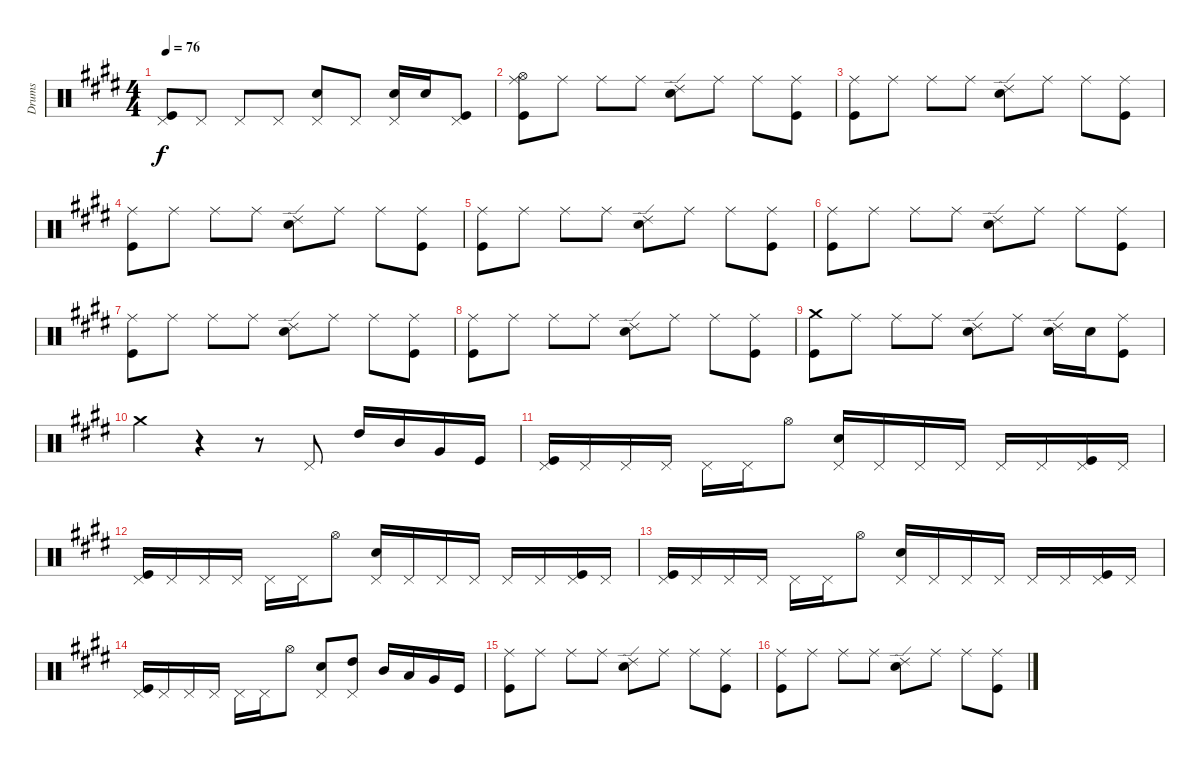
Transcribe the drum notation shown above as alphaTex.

\track ("Drums" "Drums") {instrument percussion}
\staff {score}
\articulation defaults
\ts (4 4)
\tempo 76
\clef neutral
\ks c#minor
("Pedal Hi-Hat (hit)" "Kick (hit)").8{dy f} "Pedal Hi-Hat (hit)".8 "Pedal Hi-Hat (hit)".8 "Pedal Hi-Hat (hit)".8 ("Snare (hit) 2" "Pedal Hi-Hat (hit)").8 "Pedal Hi-Hat (hit)".8 ("Snare (hit) 2" "Pedal Hi-Hat (hit)").16 "Snare (hit) 2".16 ("Kick (hit)" "Pedal Hi-Hat (hit)").8 |
("Ride (middle)" "Kick (hit)" "Hi-Hat (open)").8 "Ride (middle)".8 "Ride (middle)".8 "Ride (middle)".8 ("Snare (hit) 2" "Ride (edge) 2").8 "Ride (middle)".8 "Ride (middle)".8 ("Kick (hit)" "Ride (middle)").8 |
("Ride (middle)" "Kick (hit)").8 "Ride (middle)".8 "Ride (middle)".8 "Ride (middle)".8 ("Snare (hit) 2" "Ride (edge) 2").8 "Ride (middle)".8 "Ride (middle)".8 ("Kick (hit)" "Ride (middle)").8 |
("Ride (middle)" "Kick (hit)").8 "Ride (middle)".8 "Ride (middle)".8 "Ride (middle)".8 ("Snare (hit) 2" "Ride (edge) 2").8 "Ride (middle)".8 "Ride (middle)".8 ("Kick (hit)" "Ride (middle)").8 |
("Ride (middle)" "Kick (hit)").8 "Ride (middle)".8 "Ride (middle)".8 "Ride (middle)".8 ("Snare (hit) 2" "Ride (edge) 2").8 "Ride (middle)".8 "Ride (middle)".8 ("Kick (hit)" "Ride (middle)").8 |
("Ride (middle)" "Kick (hit)").8 "Ride (middle)".8 "Ride (middle)".8 "Ride (middle)".8 ("Snare (hit) 2" "Ride (edge) 2").8 "Ride (middle)".8 "Ride (middle)".8 ("Kick (hit)" "Ride (middle)").8 |
("Ride (middle)" "Kick (hit)").8 "Ride (middle)".8 "Ride (middle)".8 "Ride (middle)".8 ("Snare (hit) 2" "Ride (edge) 2").8 "Ride (middle)".8 "Ride (middle)".8 ("Kick (hit)" "Ride (middle)").8 |
("Ride (middle)" "Kick (hit)").8 "Ride (middle)".8 "Ride (middle)".8 "Ride (middle)".8 ("Snare (hit) 2" "Ride (edge) 2").8 "Ride (middle)".8 "Ride (middle)".8 ("Kick (hit)" "Ride (middle)").8 |
("Crash medium (hit)" "Kick (hit)").8 "Ride (middle)".8 "Ride (middle)".8 "Ride (middle)".8 ("Snare (hit) 2" "Ride (edge) 2").8 "Ride (middle)".8 ("Snare (hit) 2" "Ride (edge) 2").16 "Snare (hit) 2".16 ("Kick (hit)" "Ride (middle)").8 |
"Crash medium (hit)".4 r.4 r.8 "Pedal Hi-Hat (hit)".8 "High Tom (hit)".16 "Mid Tom (hit)".16 "Very Low Tom (hit)".16 "Kick (hit)".16 |
("Pedal Hi-Hat (hit)" "Kick (hit)").16 "Pedal Hi-Hat (hit)".16 "Pedal Hi-Hat (hit)".16 "Pedal Hi-Hat (hit)".16 "Pedal Hi-Hat (hit)".16 "Pedal Hi-Hat (hit)".16 "Hi-Hat (open)".8 ("Snare (hit) 2" "Pedal Hi-Hat (hit)").16 "Pedal Hi-Hat (hit)".16 "Pedal Hi-Hat (hit)".16 "Pedal Hi-Hat (hit)".16 "Pedal Hi-Hat (hit)".16 "Pedal Hi-Hat (hit)".16 ("Pedal Hi-Hat (hit)" "Kick (hit)").16 "Pedal Hi-Hat (hit)".16 |
("Pedal Hi-Hat (hit)" "Kick (hit)").16 "Pedal Hi-Hat (hit)".16 "Pedal Hi-Hat (hit)".16 "Pedal Hi-Hat (hit)".16 "Pedal Hi-Hat (hit)".16 "Pedal Hi-Hat (hit)".16 "Hi-Hat (open)".8 ("Snare (hit) 2" "Pedal Hi-Hat (hit)").16 "Pedal Hi-Hat (hit)".16 "Pedal Hi-Hat (hit)".16 "Pedal Hi-Hat (hit)".16 "Pedal Hi-Hat (hit)".16 "Pedal Hi-Hat (hit)".16 ("Pedal Hi-Hat (hit)" "Kick (hit)").16 "Pedal Hi-Hat (hit)".16 |
("Pedal Hi-Hat (hit)" "Kick (hit)").16 "Pedal Hi-Hat (hit)".16 "Pedal Hi-Hat (hit)".16 "Pedal Hi-Hat (hit)".16 "Pedal Hi-Hat (hit)".16 "Pedal Hi-Hat (hit)".16 "Hi-Hat (open)".8 ("Snare (hit) 2" "Pedal Hi-Hat (hit)").16 "Pedal Hi-Hat (hit)".16 "Pedal Hi-Hat (hit)".16 "Pedal Hi-Hat (hit)".16 "Pedal Hi-Hat (hit)".16 "Pedal Hi-Hat (hit)".16 ("Pedal Hi-Hat (hit)" "Kick (hit)").16 "Pedal Hi-Hat (hit)".16 |
("Pedal Hi-Hat (hit)" "Kick (hit)").16 "Pedal Hi-Hat (hit)".16 "Pedal Hi-Hat (hit)".16 "Pedal Hi-Hat (hit)".16 "Pedal Hi-Hat (hit)".16 "Pedal Hi-Hat (hit)".16 "Hi-Hat (open)".8 ("Snare (hit) 2" "Pedal Hi-Hat (hit)").8 ("High Tom (hit)" "Pedal Hi-Hat (hit)").8 "Mid Tom (hit)".16 "Low Tom (hit)".16 "Very Low Tom (hit)".16 "Kick (hit)".16 |
("Ride (middle)" "Kick (hit)").8 "Ride (middle)".8 "Ride (middle)".8 "Ride (middle)".8 ("Snare (hit) 2" "Ride (edge) 2").8 "Ride (middle)".8 "Ride (middle)".8 ("Kick (hit)" "Ride (middle)").8 |
("Ride (middle)" "Kick (hit)").8 "Ride (middle)".8 "Ride (middle)".8 "Ride (middle)".8 ("Snare (hit) 2" "Ride (edge) 2").8 "Ride (middle)".8 "Ride (middle)".8 ("Kick (hit)" "Ride (middle)").8
